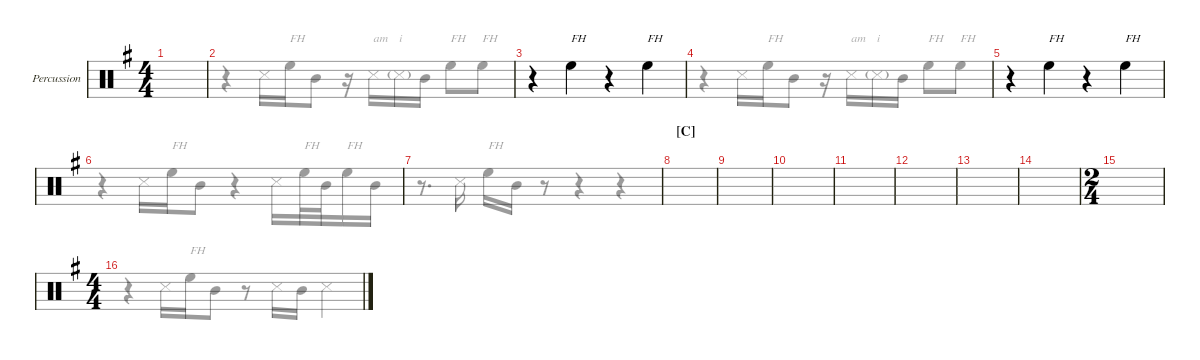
\defaultSystemsLayout 4
\hideDynamics
\bracketExtendMode groupsimilarinstruments
\firstSystemTrackNameMode fullname
\otherSystemsTrackNameMode fullname
\firstSystemTrackNameOrientation horizontal
\otherSystemsTrackNameOrientation horizontal
\track ("Percussion" "Perc.") {instrument percussion}
\staff {score}
\articulation defaults
\voice
\ts (4 4)
\tempo (88 hide)
\clef neutral
\ks g
|
|
r.4 "High Floor Tom (hit)".4{txt "FH"} r.4 "High Floor Tom (hit)".4{txt "FH"} |
|
r.4 "High Floor Tom (hit)".4{txt "FH"} r.4 "High Floor Tom (hit)".4{txt "FH"} |
|
|
\section ("C" "")
|
|
|
|
|
|
|
\ts (2 4)
|
\ts (4 4)
\voice
\clef neutral
\ottava regular
\simile none
\ks g
r.4{dy mf} "Snare (side stick) 3".16 "High Floor Tom (hit)".16{txt "FH"} "Mid Tom (hit)".8 r.8 "Snare (side stick) 3".16 "Mid Tom (hit)".16 "Snare (side stick) 3".4 |
r.4 "Snare (side stick) 3".16 "High Floor Tom (hit)".16{txt "FH"} "Mid Tom (hit)".8 r.16 "Snare (side stick) 3".16{txt "am"} "Snare (side stick) 3"{g}.16{txt "i"} "Mid Tom (hit)".16 "High Floor Tom (hit)".8{txt "FH"} "High Floor Tom (hit)".8{txt "FH"} |
|
r.4 "Snare (side stick) 3".16 "High Floor Tom (hit)".16{txt "FH"} "Mid Tom (hit)".8 r.16 "Snare (side stick) 3".16{txt "am"} "Snare (side stick) 3"{g}.16{txt "i"} "Mid Tom (hit)".16 "High Floor Tom (hit)".8{txt "FH"} "High Floor Tom (hit)".8{txt "FH"} |
|
r.4 "Snare (side stick) 3".16 "High Floor Tom (hit)".16{txt "FH"} "Mid Tom (hit)".8 r.4 "Snare (side stick) 3".16 "High Floor Tom (hit)".32{txt "FH"} "Mid Tom (hit)".32 "High Floor Tom (hit)".16{txt "FH"} "Mid Tom (hit)".16 |
r.8{d} "Snare (side stick) 3".16 "High Floor Tom (hit)".16{txt "FH"} "Mid Tom (hit)".16 r.8 r.4 r.4 |
|
|
|
|
|
|
|
|
